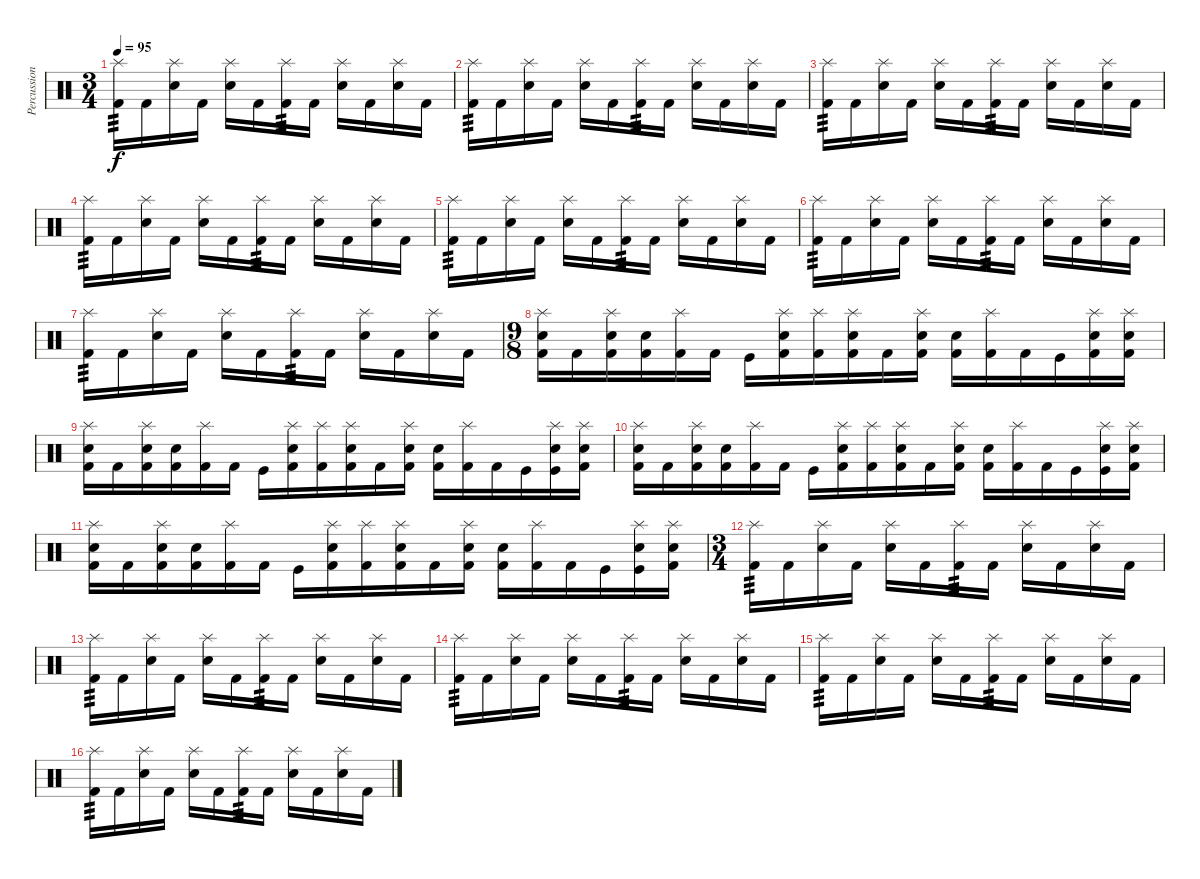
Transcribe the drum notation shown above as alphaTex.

\track ("Percussion" "Percussion") {instrument percussion}
\staff {score}
\articulation defaults
\ts (3 4)
\tempo 95
\clef neutral
\ks c
("Splash (hit)" "Kick (hit) 2").16{tp 3 dy f} "Kick (hit) 2".16 ("Splash (hit)" "Electric Snare (hit)").16 "Kick (hit) 2".16 ("Splash (hit)" "Electric Snare (hit)").16 "Kick (hit) 2".16 ("Splash (hit)" "Kick (hit) 2").16{tp 3} "Kick (hit) 2".16 ("Splash (hit)" "Electric Snare (hit)").16 "Kick (hit) 2".16 ("Splash (hit)" "Electric Snare (hit)").16 "Kick (hit) 2".16 |
("Splash (hit)" "Kick (hit) 2").16{tp 3} "Kick (hit) 2".16 ("Splash (hit)" "Electric Snare (hit)").16 "Kick (hit) 2".16 ("Splash (hit)" "Electric Snare (hit)").16 "Kick (hit) 2".16 ("Splash (hit)" "Kick (hit) 2").16{tp 3} "Kick (hit) 2".16 ("Splash (hit)" "Electric Snare (hit)").16 "Kick (hit) 2".16 ("Splash (hit)" "Electric Snare (hit)").16 "Kick (hit) 2".16 |
("Splash (hit)" "Kick (hit) 2").16{tp 3} "Kick (hit) 2".16 ("Splash (hit)" "Electric Snare (hit)").16 "Kick (hit) 2".16 ("Splash (hit)" "Electric Snare (hit)").16 "Kick (hit) 2".16 ("Splash (hit)" "Kick (hit) 2").16{tp 3} "Kick (hit) 2".16 ("Splash (hit)" "Electric Snare (hit)").16 "Kick (hit) 2".16 ("Splash (hit)" "Electric Snare (hit)").16 "Kick (hit) 2".16 |
("Splash (hit)" "Kick (hit) 2").16{tp 3} "Kick (hit) 2".16 ("Splash (hit)" "Electric Snare (hit)").16 "Kick (hit) 2".16 ("Splash (hit)" "Electric Snare (hit)").16 "Kick (hit) 2".16 ("Splash (hit)" "Kick (hit) 2").16{tp 3} "Kick (hit) 2".16 ("Splash (hit)" "Electric Snare (hit)").16 "Kick (hit) 2".16 ("Splash (hit)" "Electric Snare (hit)").16 "Kick (hit) 2".16 |
("Splash (hit)" "Kick (hit) 2").16{tp 3} "Kick (hit) 2".16 ("Splash (hit)" "Electric Snare (hit)").16 "Kick (hit) 2".16 ("Splash (hit)" "Electric Snare (hit)").16 "Kick (hit) 2".16 ("Splash (hit)" "Kick (hit) 2").16{tp 3} "Kick (hit) 2".16 ("Splash (hit)" "Electric Snare (hit)").16 "Kick (hit) 2".16 ("Splash (hit)" "Electric Snare (hit)").16 "Kick (hit) 2".16 |
("Splash (hit)" "Kick (hit) 2").16{tp 3} "Kick (hit) 2".16 ("Splash (hit)" "Electric Snare (hit)").16 "Kick (hit) 2".16 ("Splash (hit)" "Electric Snare (hit)").16 "Kick (hit) 2".16 ("Splash (hit)" "Kick (hit) 2").16{tp 3} "Kick (hit) 2".16 ("Splash (hit)" "Electric Snare (hit)").16 "Kick (hit) 2".16 ("Splash (hit)" "Electric Snare (hit)").16 "Kick (hit) 2".16 |
("Splash (hit)" "Kick (hit) 2").16{tp 3} "Kick (hit) 2".16 ("Splash (hit)" "Electric Snare (hit)").16 "Kick (hit) 2".16 ("Splash (hit)" "Electric Snare (hit)").16 "Kick (hit) 2".16 ("Splash (hit)" "Kick (hit) 2").16{tp 3} "Kick (hit) 2".16 ("Splash (hit)" "Electric Snare (hit)").16 "Kick (hit) 2".16 ("Splash (hit)" "Electric Snare (hit)").16 "Kick (hit) 2".16 |
\ts (9 8)
("Splash (hit)" "Electric Snare (hit)" "Kick (hit) 2").16 "Kick (hit) 2".16 ("Splash (hit)" "Electric Snare (hit)" "Kick (hit) 2").16 ("Electric Snare (hit)" "Kick (hit) 2").16 ("Splash (hit)" "Kick (hit) 2").16 "Kick (hit) 2".16 "Kick (hit)".16 ("Splash (hit)" "Electric Snare (hit)" "Kick (hit) 2").16 ("Splash (hit)" "Kick (hit) 2").16 ("Splash (hit)" "Electric Snare (hit)" "Kick (hit) 2").16 "Kick (hit) 2".16 ("Splash (hit)" "Electric Snare (hit)" "Kick (hit) 2").16 ("Electric Snare (hit)" "Kick (hit) 2").16 ("Splash (hit)" "Kick (hit) 2").16 "Kick (hit) 2".16 "Kick (hit)".16 ("Splash (hit)" "Electric Snare (hit)" "Kick (hit) 2").16 ("Splash (hit)" "Electric Snare (hit)" "Kick (hit) 2").16 |
("Splash (hit)" "Electric Snare (hit)" "Kick (hit) 2").16 "Kick (hit) 2".16 ("Splash (hit)" "Electric Snare (hit)" "Kick (hit) 2").16 ("Electric Snare (hit)" "Kick (hit) 2").16 ("Splash (hit)" "Kick (hit) 2").16 "Kick (hit) 2".16 "Kick (hit)".16 ("Splash (hit)" "Electric Snare (hit)" "Kick (hit) 2").16 ("Splash (hit)" "Kick (hit) 2").16 ("Splash (hit)" "Electric Snare (hit)" "Kick (hit) 2").16 "Kick (hit) 2".16 ("Splash (hit)" "Electric Snare (hit)" "Kick (hit) 2").16 ("Electric Snare (hit)" "Kick (hit) 2").16 ("Splash (hit)" "Kick (hit) 2").16 "Kick (hit) 2".16 "Kick (hit)".16 ("Splash (hit)" "Electric Snare (hit)" "Kick (hit)").16 ("Splash (hit)" "Electric Snare (hit)" "Kick (hit) 2").16 |
("Splash (hit)" "Electric Snare (hit)" "Kick (hit) 2").16 "Kick (hit) 2".16 ("Splash (hit)" "Electric Snare (hit)" "Kick (hit) 2").16 ("Electric Snare (hit)" "Kick (hit) 2").16 ("Splash (hit)" "Kick (hit) 2").16 "Kick (hit) 2".16 "Kick (hit)".16 ("Splash (hit)" "Electric Snare (hit)" "Kick (hit) 2").16 ("Splash (hit)" "Kick (hit) 2").16 ("Splash (hit)" "Electric Snare (hit)" "Kick (hit) 2").16 "Kick (hit) 2".16 ("Splash (hit)" "Electric Snare (hit)" "Kick (hit) 2").16 ("Electric Snare (hit)" "Kick (hit) 2").16 ("Splash (hit)" "Kick (hit) 2").16 "Kick (hit) 2".16 "Kick (hit)".16 ("Splash (hit)" "Electric Snare (hit)" "Kick (hit)").16 ("Splash (hit)" "Electric Snare (hit)" "Kick (hit) 2").16 |
("Splash (hit)" "Electric Snare (hit)" "Kick (hit) 2").16 "Kick (hit) 2".16 ("Splash (hit)" "Electric Snare (hit)" "Kick (hit) 2").16 ("Electric Snare (hit)" "Kick (hit) 2").16 ("Splash (hit)" "Kick (hit) 2").16 "Kick (hit) 2".16 "Kick (hit)".16 ("Splash (hit)" "Electric Snare (hit)" "Kick (hit) 2").16 ("Splash (hit)" "Kick (hit) 2").16 ("Splash (hit)" "Electric Snare (hit)" "Kick (hit) 2").16 "Kick (hit) 2".16 ("Splash (hit)" "Electric Snare (hit)" "Kick (hit) 2").16 ("Electric Snare (hit)" "Kick (hit) 2").16 ("Splash (hit)" "Kick (hit) 2").16 "Kick (hit) 2".16 "Kick (hit)".16 ("Splash (hit)" "Electric Snare (hit)" "Kick (hit)").16 ("Splash (hit)" "Electric Snare (hit)" "Kick (hit) 2").16 |
\ts (3 4)
("Splash (hit)" "Kick (hit) 2").16{tp 3} "Kick (hit) 2".16 ("Splash (hit)" "Electric Snare (hit)").16 "Kick (hit) 2".16 ("Splash (hit)" "Electric Snare (hit)").16 "Kick (hit) 2".16 ("Splash (hit)" "Kick (hit) 2").16{tp 3} "Kick (hit) 2".16 ("Splash (hit)" "Electric Snare (hit)").16 "Kick (hit) 2".16 ("Splash (hit)" "Electric Snare (hit)").16 "Kick (hit) 2".16 |
("Splash (hit)" "Kick (hit) 2").16{tp 3} "Kick (hit) 2".16 ("Splash (hit)" "Electric Snare (hit)").16 "Kick (hit) 2".16 ("Splash (hit)" "Electric Snare (hit)").16 "Kick (hit) 2".16 ("Splash (hit)" "Kick (hit) 2").16{tp 3} "Kick (hit) 2".16 ("Splash (hit)" "Electric Snare (hit)").16 "Kick (hit) 2".16 ("Splash (hit)" "Electric Snare (hit)").16 "Kick (hit) 2".16 |
("Splash (hit)" "Kick (hit) 2").16{tp 3} "Kick (hit) 2".16 ("Splash (hit)" "Electric Snare (hit)").16 "Kick (hit) 2".16 ("Splash (hit)" "Electric Snare (hit)").16 "Kick (hit) 2".16 ("Splash (hit)" "Kick (hit) 2").16{tp 3} "Kick (hit) 2".16 ("Splash (hit)" "Electric Snare (hit)").16 "Kick (hit) 2".16 ("Splash (hit)" "Electric Snare (hit)").16 "Kick (hit) 2".16 |
("Splash (hit)" "Kick (hit) 2").16{tp 3} "Kick (hit) 2".16 ("Splash (hit)" "Electric Snare (hit)").16 "Kick (hit) 2".16 ("Splash (hit)" "Electric Snare (hit)").16 "Kick (hit) 2".16 ("Splash (hit)" "Kick (hit) 2").16{tp 3} "Kick (hit) 2".16 ("Splash (hit)" "Electric Snare (hit)").16 "Kick (hit) 2".16 ("Splash (hit)" "Electric Snare (hit)").16 "Kick (hit) 2".16 |
("Splash (hit)" "Kick (hit) 2").16{tp 3} "Kick (hit) 2".16 ("Splash (hit)" "Electric Snare (hit)").16 "Kick (hit) 2".16 ("Splash (hit)" "Electric Snare (hit)").16 "Kick (hit) 2".16 ("Splash (hit)" "Kick (hit) 2").16{tp 3} "Kick (hit) 2".16 ("Splash (hit)" "Electric Snare (hit)").16 "Kick (hit) 2".16 ("Splash (hit)" "Electric Snare (hit)").16 "Kick (hit) 2".16
